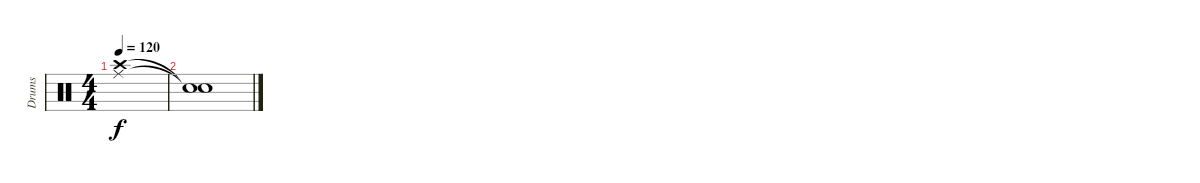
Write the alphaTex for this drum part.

\track ("Drums" "Drums") {instrument percussion}
\staff {score}
\articulation defaults
\ts (4 4)
\tempo 120
\clef neutral
\ks c
("Crash high (hit)" "Ride (middle)").1{dy f} |
("Snare (hit)"{t} "Snare (hit)"{t}).1
